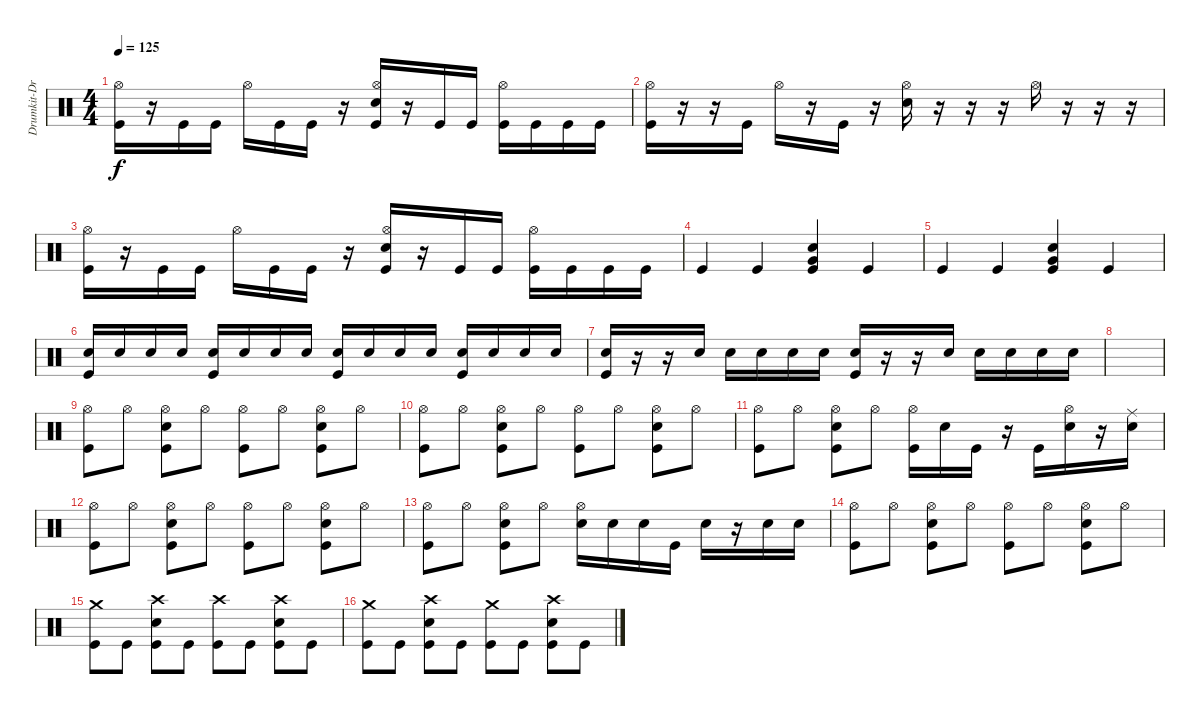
\track ("Drumkit-Drums" "Drumkit-Dr") {instrument percussion}
\staff {score}
\articulation defaults
\ts (4 4)
\tempo 125
\clef neutral
\ks c
("Kick (hit)" "Hi-Hat (open)").16{dy f} r.16 "Kick (hit)".16 "Kick (hit)".16 "Hi-Hat (open)".16 "Kick (hit)".16 "Kick (hit)".16 r.16 ("Kick (hit)" "Hi-Hat (open)" "Snare (hit) 2").16 r.16 "Kick (hit)".16 "Kick (hit)".16 ("Kick (hit)" "Hi-Hat (open)").16 "Kick (hit)".16 "Kick (hit)".16 "Kick (hit)".16 |
("Kick (hit)" "Hi-Hat (open)").16 r.16 r.16 "Kick (hit)".16 "Hi-Hat (open)".16 r.16 "Kick (hit)".16 r.16 ("Hi-Hat (open)" "Snare (hit) 2").16 r.16 r.16 r.16 "Hi-Hat (open)".16 r.16 r.16 r.16 |
("Kick (hit)" "Hi-Hat (open)").16 r.16 "Kick (hit)".16 "Kick (hit)".16 "Hi-Hat (open)".16 "Kick (hit)".16 "Kick (hit)".16 r.16 ("Kick (hit)" "Hi-Hat (open)" "Snare (hit) 2").16 r.16 "Kick (hit)".16 "Kick (hit)".16 ("Kick (hit)" "Hi-Hat (open)").16 "Kick (hit)".16 "Kick (hit)".16 "Kick (hit)".16 |
"Kick (hit)".4 "Kick (hit)".4 ("Very Low Tom (hit)" "Kick (hit)" "Snare (hit) 2").4 "Kick (hit)".4 |
"Kick (hit)".4 "Kick (hit)".4 ("Very Low Tom (hit)" "Kick (hit)" "Snare (hit) 2").4 "Kick (hit)".4 |
("Snare (hit) 2" "Kick (hit)").16 "Snare (hit) 2".16 "Snare (hit) 2".16 "Snare (hit) 2".16 ("Snare (hit) 2" "Kick (hit)").16 "Snare (hit) 2".16 "Snare (hit) 2".16 "Snare (hit) 2".16 ("Snare (hit) 2" "Kick (hit)").16 "Snare (hit) 2".16 "Snare (hit) 2".16 "Snare (hit) 2".16 ("Snare (hit) 2" "Kick (hit)").16 "Snare (hit) 2".16 "Snare (hit) 2".16 "Snare (hit) 2".16 |
("Snare (hit) 2" "Kick (hit)").16 r.16 r.16 "Snare (hit) 2".16 "Snare (hit) 2".16 "Snare (hit) 2".16 "Snare (hit) 2".16 "Snare (hit) 2".16 ("Snare (hit) 2" "Kick (hit)").16 r.16 r.16 "Snare (hit) 2".16 "Snare (hit) 2".16 "Snare (hit) 2".16 "Snare (hit) 2".16 "Snare (hit) 2".16 |
|
("Kick (hit)" "Hi-Hat (open)").8 "Hi-Hat (open)".8 ("Kick (hit)" "Snare (hit) 2" "Hi-Hat (open)").8 "Hi-Hat (open)".8 ("Kick (hit)" "Hi-Hat (open)").8 "Hi-Hat (open)".8 ("Kick (hit)" "Snare (hit) 2" "Hi-Hat (open)").8 "Hi-Hat (open)".8 |
("Kick (hit)" "Hi-Hat (open)").8 "Hi-Hat (open)".8 ("Kick (hit)" "Snare (hit) 2" "Hi-Hat (open)").8 "Hi-Hat (open)".8 ("Kick (hit)" "Hi-Hat (open)").8 "Hi-Hat (open)".8 ("Kick (hit)" "Snare (hit) 2" "Hi-Hat (open)").8 "Hi-Hat (open)".8 |
("Kick (hit)" "Hi-Hat (open)").8 "Hi-Hat (open)".8 ("Kick (hit)" "Snare (hit) 2" "Hi-Hat (open)").8 "Hi-Hat (open)".8 ("Kick (hit)" "Hi-Hat (open)").16 "Snare (hit) 2".16 "Kick (hit)".16 r.16 "Kick (hit)".16 ("Snare (hit) 2" "Hi-Hat (open)").16 r.16 ("Snare (hit) 2" "Ride (middle)").16 |
("Kick (hit)" "Hi-Hat (open)").8 "Hi-Hat (open)".8 ("Kick (hit)" "Snare (hit) 2" "Hi-Hat (open)").8 "Hi-Hat (open)".8 ("Kick (hit)" "Hi-Hat (open)").8 "Hi-Hat (open)".8 ("Kick (hit)" "Snare (hit) 2" "Hi-Hat (open)").8 "Hi-Hat (open)".8 |
("Kick (hit)" "Hi-Hat (open)").8 "Hi-Hat (open)".8 ("Kick (hit)" "Snare (hit) 2" "Hi-Hat (open)").8 "Hi-Hat (open)".8 ("Snare (hit) 2" "Hi-Hat (open)").16 "Snare (hit) 2".16 "Snare (hit) 2".16 "Kick (hit)".16 "Snare (hit) 2".16 r.16 "Snare (hit) 2".16 "Snare (hit) 2".16 |
("Kick (hit)" "Hi-Hat (open)").8 "Hi-Hat (open)".8 ("Kick (hit)" "Snare (hit) 2" "Hi-Hat (open)").8 "Hi-Hat (open)".8 ("Kick (hit)" "Hi-Hat (open)").8 "Hi-Hat (open)".8 ("Kick (hit)" "Snare (hit) 2" "Hi-Hat (open)").8 "Hi-Hat (open)".8 |
("Kick (hit)" "Crash medium (hit)").8 "Kick (hit)".8 ("Kick (hit)" "Crash high (hit)" "Snare (hit) 2").8 "Kick (hit)".8 ("Kick (hit)" "Crash high (hit)").8 "Kick (hit)".8 ("Kick (hit)" "Crash high (hit)" "Snare (hit) 2").8 "Kick (hit)".8 |
("Crash medium (hit)" "Kick (hit)").8 "Kick (hit)".8 ("Kick (hit)" "Snare (hit) 2" "Crash high (hit)").8 "Kick (hit)".8 ("Kick (hit)" "Crash medium (hit)").8 "Kick (hit)".8 ("Kick (hit)" "Snare (hit) 2" "Crash high (hit)").8 "Kick (hit)".8
